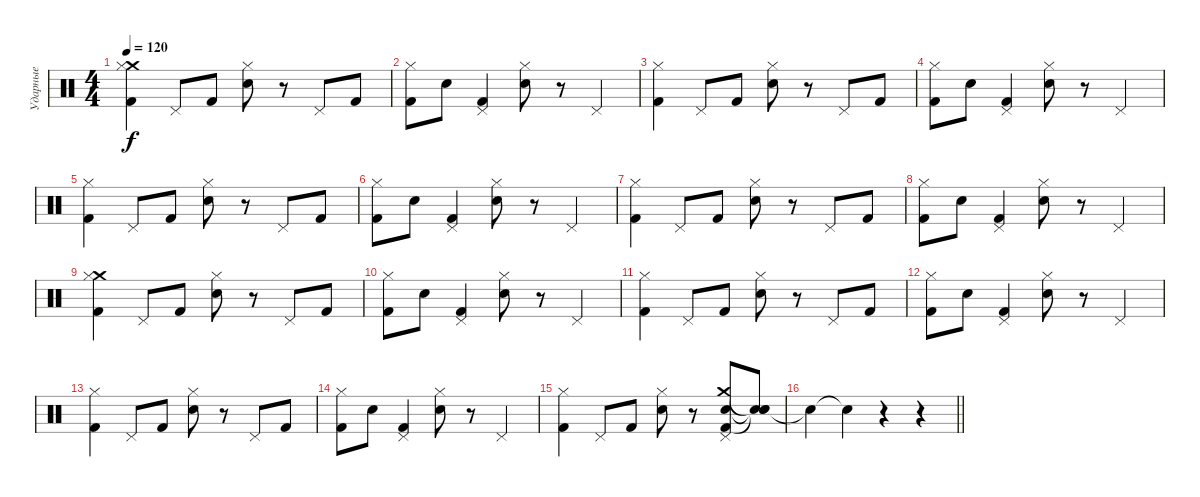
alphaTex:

\track ("Ударные" "Ударные") {instrument percussion}
\staff {score}
\articulation defaults
\ts (4 4)
\tempo 120
\clef neutral
\ks c
("Kick (hit) 2" "Crash medium (hit)" "Hi-Hat (closed)").4{dy f} "Pedal Hi-Hat (hit)".8 "Kick (hit) 2".8 ("Snare (hit) 2" "Hi-Hat (closed)").8 r.8 "Pedal Hi-Hat (hit)".8 "Kick (hit) 2".8 |
("Kick (hit) 2" "Hi-Hat (closed)").8 "Snare (hit) 2".8 ("Kick (hit) 2" "Pedal Hi-Hat (hit)").4 ("Snare (hit) 2" "Hi-Hat (closed)").8 r.8 "Pedal Hi-Hat (hit)".4 |
("Kick (hit) 2" "Hi-Hat (closed)").4 "Pedal Hi-Hat (hit)".8 "Kick (hit) 2".8 ("Snare (hit) 2" "Hi-Hat (closed)").8 r.8 "Pedal Hi-Hat (hit)".8 "Kick (hit) 2".8 |
("Kick (hit) 2" "Hi-Hat (closed)").8 "Snare (hit) 2".8 ("Kick (hit) 2" "Pedal Hi-Hat (hit)").4 ("Snare (hit) 2" "Hi-Hat (closed)").8 r.8 "Pedal Hi-Hat (hit)".4 |
("Kick (hit) 2" "Hi-Hat (closed)").4 "Pedal Hi-Hat (hit)".8 "Kick (hit) 2".8 ("Snare (hit) 2" "Hi-Hat (closed)").8 r.8 "Pedal Hi-Hat (hit)".8 "Kick (hit) 2".8 |
("Kick (hit) 2" "Hi-Hat (closed)").8 "Snare (hit) 2".8 ("Kick (hit) 2" "Pedal Hi-Hat (hit)").4 ("Snare (hit) 2" "Hi-Hat (closed)").8 r.8 "Pedal Hi-Hat (hit)".4 |
("Kick (hit) 2" "Hi-Hat (closed)").4 "Pedal Hi-Hat (hit)".8 "Kick (hit) 2".8 ("Snare (hit) 2" "Hi-Hat (closed)").8 r.8 "Pedal Hi-Hat (hit)".8 "Kick (hit) 2".8 |
("Kick (hit) 2" "Hi-Hat (closed)").8 "Snare (hit) 2".8 ("Kick (hit) 2" "Pedal Hi-Hat (hit)").4 ("Snare (hit) 2" "Hi-Hat (closed)").8 r.8 "Pedal Hi-Hat (hit)".4 |
("Kick (hit) 2" "Crash medium (hit)" "Hi-Hat (closed)").4 "Pedal Hi-Hat (hit)".8 "Kick (hit) 2".8 ("Snare (hit) 2" "Hi-Hat (closed)").8 r.8 "Pedal Hi-Hat (hit)".8 "Kick (hit) 2".8 |
("Kick (hit) 2" "Hi-Hat (closed)").8 "Snare (hit) 2".8 ("Kick (hit) 2" "Pedal Hi-Hat (hit)").4 ("Snare (hit) 2" "Hi-Hat (closed)").8 r.8 "Pedal Hi-Hat (hit)".4 |
("Kick (hit) 2" "Hi-Hat (closed)").4 "Pedal Hi-Hat (hit)".8 "Kick (hit) 2".8 ("Snare (hit) 2" "Hi-Hat (closed)").8 r.8 "Pedal Hi-Hat (hit)".8 "Kick (hit) 2".8 |
("Kick (hit) 2" "Hi-Hat (closed)").8 "Snare (hit) 2".8 ("Kick (hit) 2" "Pedal Hi-Hat (hit)").4 ("Snare (hit) 2" "Hi-Hat (closed)").8 r.8 "Pedal Hi-Hat (hit)".4 |
("Kick (hit) 2" "Hi-Hat (closed)").4 "Pedal Hi-Hat (hit)".8 "Kick (hit) 2".8 ("Snare (hit) 2" "Hi-Hat (closed)").8 r.8 "Pedal Hi-Hat (hit)".8 "Kick (hit) 2".8 |
("Kick (hit) 2" "Hi-Hat (closed)").8 "Snare (hit) 2".8 ("Kick (hit) 2" "Pedal Hi-Hat (hit)").4 ("Snare (hit) 2" "Hi-Hat (closed)").8 r.8 "Pedal Hi-Hat (hit)".4 |
("Kick (hit) 2" "Hi-Hat (closed)").4 "Pedal Hi-Hat (hit)".8 "Kick (hit) 2".8 ("Snare (hit) 2" "Hi-Hat (closed)").8 r.8 ("Kick (hit) 2" "Snare (hit) 2" "Crash medium (hit)" "Pedal Hi-Hat (hit)").8 ("Snare (hit)"{t} "Snare (hit)"{t} "Snare (hit)"{t}).8 |
\barLineRight lightlight "Snare (hit)"{t}.4 "Snare (hit)"{t}.4
r.4 r.4
